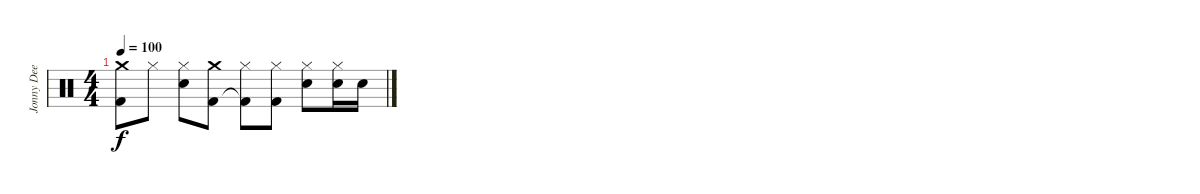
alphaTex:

\track ("Jonny Dee" "Jonny Dee") {instrument percussion}
\staff {score}
\articulation defaults
\ts (4 4)
\tempo 100
\clef neutral
\ks c
("Crash medium (hit)" "Kick (hit) 2").8{dy f} "Hi-Hat (closed)".8 ("Hi-Hat (closed)" "Snare (hit) 2").8 ("Crash medium (hit)" "Kick (hit) 2").8 ("Hi-Hat (closed)" "Kick (hit) 2"{t}).8 ("Hi-Hat (closed)" "Kick (hit) 2").8 ("Hi-Hat (closed)" "Snare (hit) 2").8 ("Hi-Hat (closed)" "Snare (hit) 2").16 "Snare (hit) 2".16
